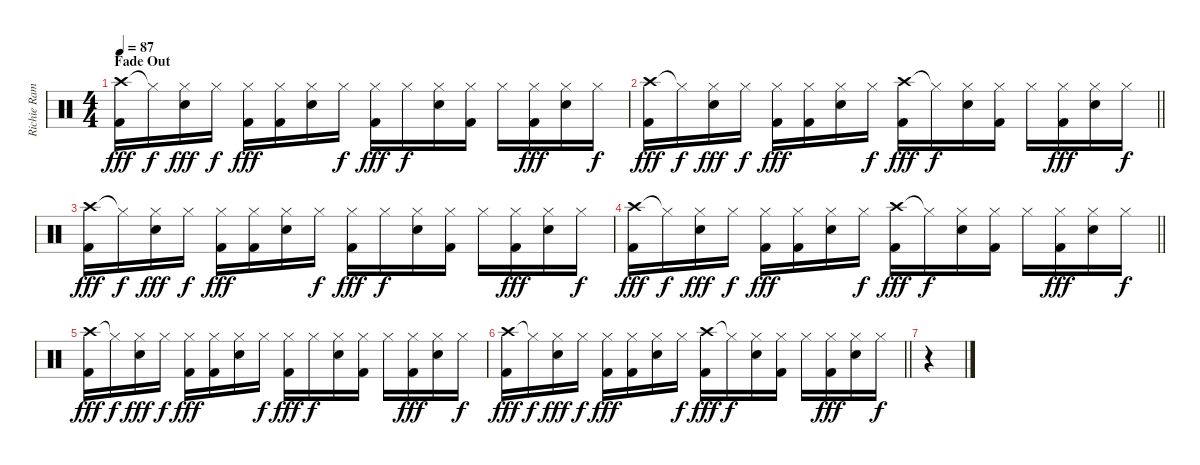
\track ("Richie Ramone " "Richie Ram") {instrument percussion}
\staff {score}
\articulation defaults
\ts (4 4)
\section ("" "Fade Out")
\tempo 87
\clef neutral
\ks c
("Crash high (hit)" "Kick (hit) 2").16{dy fff volume 3} "Hi-Hat (closed)"{t}.16{dy f} ("Hi-Hat (closed)" "Electric Snare (hit)").16{dy fff} "Hi-Hat (closed)".16{dy f} ("Hi-Hat (closed)" "Kick (hit) 2").16{dy fff} ("Hi-Hat (closed)" "Kick (hit) 2").16 ("Hi-Hat (closed)" "Electric Snare (hit)").16 "Hi-Hat (closed)".16{dy f} ("Hi-Hat (closed)" "Kick (hit) 2").16{dy fff} "Hi-Hat (closed)".16{dy f} ("Hi-Hat (closed)" "Electric Snare (hit)").16 ("Hi-Hat (closed)" "Kick (hit) 2").16 "Hi-Hat (closed)".16 ("Hi-Hat (closed)" "Kick (hit) 2").16{dy fff} ("Hi-Hat (closed)" "Electric Snare (hit)").16 "Hi-Hat (closed)".16{dy f} |
\barLineRight lightlight
("Crash high (hit)" "Kick (hit) 2").16{dy fff} "Hi-Hat (closed)"{t}.16{dy f} ("Hi-Hat (closed)" "Electric Snare (hit)").16{dy fff} "Hi-Hat (closed)".16{dy f} ("Hi-Hat (closed)" "Kick (hit) 2").16{dy fff} ("Hi-Hat (closed)" "Kick (hit) 2").16 ("Hi-Hat (closed)" "Electric Snare (hit)").16 "Hi-Hat (closed)".16{dy f} ("Crash high (hit)" "Kick (hit) 2").16{dy fff} "Hi-Hat (closed)"{t}.16{dy f} ("Hi-Hat (closed)" "Electric Snare (hit)").16 ("Hi-Hat (closed)" "Kick (hit) 2").16 "Hi-Hat (closed)".16 ("Hi-Hat (closed)" "Kick (hit) 2").16{dy fff} ("Hi-Hat (closed)" "Electric Snare (hit)").16 "Hi-Hat (closed)".16{dy f} |
("Crash high (hit)" "Kick (hit) 2").16{dy fff} "Hi-Hat (closed)"{t}.16{dy f} ("Hi-Hat (closed)" "Electric Snare (hit)").16{dy fff} "Hi-Hat (closed)".16{dy f} ("Hi-Hat (closed)" "Kick (hit) 2").16{dy fff} ("Hi-Hat (closed)" "Kick (hit) 2").16 ("Hi-Hat (closed)" "Electric Snare (hit)").16 "Hi-Hat (closed)".16{dy f} ("Hi-Hat (closed)" "Kick (hit) 2").16{dy fff} "Hi-Hat (closed)".16{dy f} ("Hi-Hat (closed)" "Electric Snare (hit)").16 ("Hi-Hat (closed)" "Kick (hit) 2").16 "Hi-Hat (closed)".16 ("Hi-Hat (closed)" "Kick (hit) 2").16{dy fff} ("Hi-Hat (closed)" "Electric Snare (hit)").16 "Hi-Hat (closed)".16{dy f} |
\barLineRight lightlight
("Crash high (hit)" "Kick (hit) 2").16{dy fff} "Hi-Hat (closed)"{t}.16{dy f} ("Hi-Hat (closed)" "Electric Snare (hit)").16{dy fff} "Hi-Hat (closed)".16{dy f} ("Hi-Hat (closed)" "Kick (hit) 2").16{dy fff} ("Hi-Hat (closed)" "Kick (hit) 2").16 ("Hi-Hat (closed)" "Electric Snare (hit)").16 "Hi-Hat (closed)".16{dy f} ("Crash high (hit)" "Kick (hit) 2").16{dy fff} "Hi-Hat (closed)"{t}.16{dy f} ("Hi-Hat (closed)" "Electric Snare (hit)").16 ("Hi-Hat (closed)" "Kick (hit) 2").16 "Hi-Hat (closed)".16 ("Hi-Hat (closed)" "Kick (hit) 2").16{dy fff} ("Hi-Hat (closed)" "Electric Snare (hit)").16 "Hi-Hat (closed)".16{dy f} |
("Crash high (hit)" "Kick (hit) 2").16{dy fff volume 0} "Hi-Hat (closed)"{t}.16{dy f} ("Hi-Hat (closed)" "Electric Snare (hit)").16{dy fff} "Hi-Hat (closed)".16{dy f} ("Hi-Hat (closed)" "Kick (hit) 2").16{dy fff} ("Hi-Hat (closed)" "Kick (hit) 2").16 ("Hi-Hat (closed)" "Electric Snare (hit)").16 "Hi-Hat (closed)".16{dy f} ("Hi-Hat (closed)" "Kick (hit) 2").16{dy fff} "Hi-Hat (closed)".16{dy f} ("Hi-Hat (closed)" "Electric Snare (hit)").16 ("Hi-Hat (closed)" "Kick (hit) 2").16 "Hi-Hat (closed)".16 ("Hi-Hat (closed)" "Kick (hit) 2").16{dy fff} ("Hi-Hat (closed)" "Electric Snare (hit)").16 "Hi-Hat (closed)".16{dy f} |
\barLineRight lightlight
("Crash high (hit)" "Kick (hit) 2").16{dy fff} "Hi-Hat (closed)"{t}.16{dy f} ("Hi-Hat (closed)" "Electric Snare (hit)").16{dy fff} "Hi-Hat (closed)".16{dy f} ("Hi-Hat (closed)" "Kick (hit) 2").16{dy fff} ("Hi-Hat (closed)" "Kick (hit) 2").16 ("Hi-Hat (closed)" "Electric Snare (hit)").16 "Hi-Hat (closed)".16{dy f} ("Crash high (hit)" "Kick (hit) 2").16{dy fff} "Hi-Hat (closed)"{t}.16{dy f} ("Hi-Hat (closed)" "Electric Snare (hit)").16 ("Hi-Hat (closed)" "Kick (hit) 2").16 "Hi-Hat (closed)".16 ("Hi-Hat (closed)" "Kick (hit) 2").16{dy fff} ("Hi-Hat (closed)" "Electric Snare (hit)").16 "Hi-Hat (closed)".16{dy f} |
r.4
